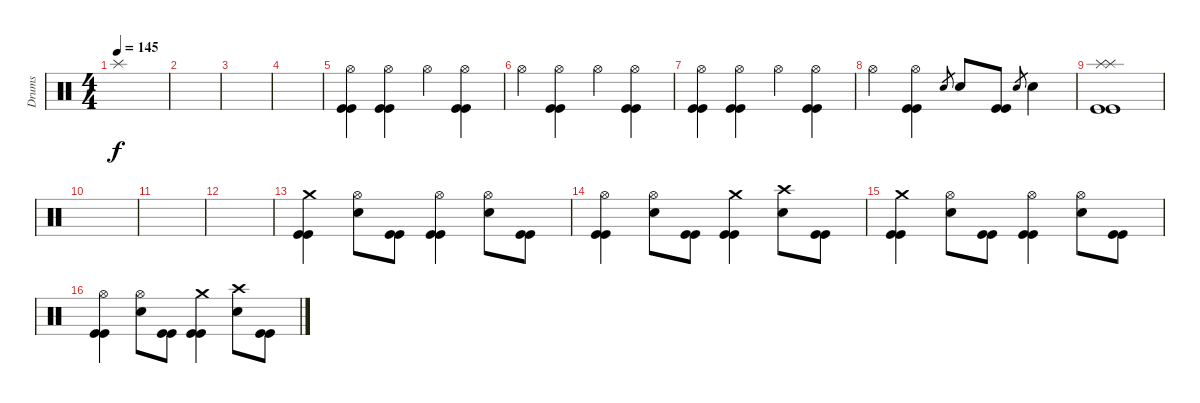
\track ("Drums" "Drums") {instrument percussion}
\staff {score}
\articulation defaults
\ts (4 4)
\tempo 145
\clef neutral
\ks c "Splash (hit)".1{dy f}
|
|
|
|
("Hi-Hat (open)" "Kick (hit)" "Kick (hit)").4 ("Hi-Hat (open)" "Kick (hit)" "Kick (hit)").4 "Hi-Hat (open)".4 ("Hi-Hat (open)" "Kick (hit)" "Kick (hit)").4 |
"Hi-Hat (open)".4 ("Hi-Hat (open)" "Kick (hit)" "Kick (hit)").4 "Hi-Hat (open)".4 ("Hi-Hat (open)" "Kick (hit)" "Kick (hit)").4 |
("Hi-Hat (open)" "Kick (hit)" "Kick (hit)").4 ("Hi-Hat (open)" "Kick (hit)" "Kick (hit)").4 "Hi-Hat (open)".4 ("Hi-Hat (open)" "Kick (hit)" "Kick (hit)").4 |
"Hi-Hat (open)".4 ("Hi-Hat (open)" "Kick (hit)" "Kick (hit)").4 "Electric Snare (hit)".8{gr} "Electric Snare (hit)".8 ("Kick (hit)" "Kick (hit)").8 "Electric Snare (hit)".8{gr} "Electric Snare (hit)".4 |
("Splash (hit)" "Splash (hit)" "Kick (hit)" "Kick (hit)").1 |
|
|
|
("Crash medium (hit)" "Kick (hit)" "Kick (hit)").4 ("Hi-Hat (open)" "Electric Snare (hit)").8 ("Kick (hit)" "Kick (hit)").8 ("Hi-Hat (open)" "Kick (hit)" "Kick (hit)").4 ("Hi-Hat (open)" "Electric Snare (hit)").8 ("Kick (hit)" "Kick (hit)").8 |
("Hi-Hat (open)" "Kick (hit)" "Kick (hit)").4 ("Hi-Hat (open)" "Electric Snare (hit)").8 ("Kick (hit)" "Kick (hit)").8 ("Crash medium (hit)" "Kick (hit)" "Kick (hit)").4 ("Crash high (hit)" "Electric Snare (hit)").8 ("Kick (hit)" "Kick (hit)").8 |
("Crash medium (hit)" "Kick (hit)" "Kick (hit)").4 ("Hi-Hat (open)" "Electric Snare (hit)").8 ("Kick (hit)" "Kick (hit)").8 ("Hi-Hat (open)" "Kick (hit)" "Kick (hit)").4 ("Hi-Hat (open)" "Electric Snare (hit)").8 ("Kick (hit)" "Kick (hit)").8 |
("Hi-Hat (open)" "Kick (hit)" "Kick (hit)").4 ("Hi-Hat (open)" "Electric Snare (hit)").8 ("Kick (hit)" "Kick (hit)").8 ("Crash medium (hit)" "Kick (hit)" "Kick (hit)").4 ("Crash high (hit)" "Electric Snare (hit)").8 ("Kick (hit)" "Kick (hit)").8
